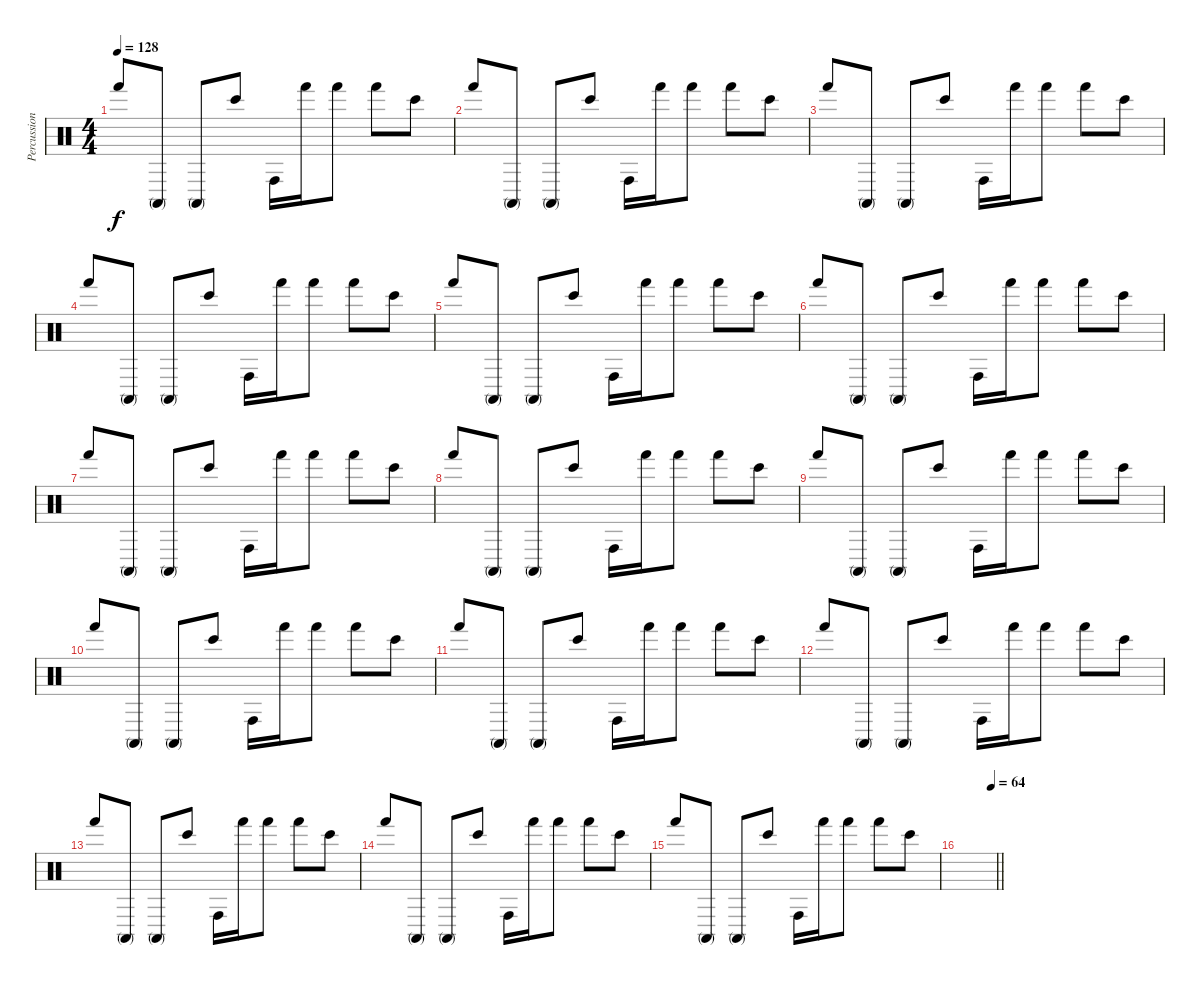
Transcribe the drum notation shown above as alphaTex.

\track ("Percussion" "Percussion") {instrument percussion}
\staff {score}
\articulation defaults
\ts (4 4)
\tempo 128
\clef neutral
\ks c "Hand (hit)".8{dy f} "Conga high (mute)".8 "Conga high (mute)".8 "Bongo High (hit)".8 "Conga high (hit)".16 "Hand (hit)".16 "Hand (hit)".8 "Hand (hit)".8 "Bongo High (hit)".8
|
"Hand (hit)".8 "Conga high (mute)".8 "Conga high (mute)".8 "Bongo High (hit)".8 "Conga high (hit)".16 "Hand (hit)".16 "Hand (hit)".8 "Hand (hit)".8 "Bongo High (hit)".8 |
"Hand (hit)".8 "Conga high (mute)".8 "Conga high (mute)".8 "Bongo High (hit)".8 "Conga high (hit)".16 "Hand (hit)".16 "Hand (hit)".8 "Hand (hit)".8 "Bongo High (hit)".8 |
"Hand (hit)".8 "Conga high (mute)".8 "Conga high (mute)".8 "Bongo High (hit)".8 "Conga high (hit)".16 "Hand (hit)".16 "Hand (hit)".8 "Hand (hit)".8 "Bongo High (hit)".8 |
"Hand (hit)".8 "Conga high (mute)".8 "Conga high (mute)".8 "Bongo High (hit)".8 "Conga high (hit)".16 "Hand (hit)".16 "Hand (hit)".8 "Hand (hit)".8 "Bongo High (hit)".8 |
"Hand (hit)".8 "Conga high (mute)".8 "Conga high (mute)".8 "Bongo High (hit)".8 "Conga high (hit)".16 "Hand (hit)".16 "Hand (hit)".8 "Hand (hit)".8 "Bongo High (hit)".8 |
"Hand (hit)".8 "Conga high (mute)".8 "Conga high (mute)".8 "Bongo High (hit)".8 "Conga high (hit)".16 "Hand (hit)".16 "Hand (hit)".8 "Hand (hit)".8 "Bongo High (hit)".8 |
"Hand (hit)".8 "Conga high (mute)".8 "Conga high (mute)".8 "Bongo High (hit)".8 "Conga high (hit)".16 "Hand (hit)".16 "Hand (hit)".8 "Hand (hit)".8 "Bongo High (hit)".8 |
"Hand (hit)".8 "Conga high (mute)".8 "Conga high (mute)".8 "Bongo High (hit)".8 "Conga high (hit)".16 "Hand (hit)".16 "Hand (hit)".8 "Hand (hit)".8 "Bongo High (hit)".8 |
"Hand (hit)".8 "Conga high (mute)".8 "Conga high (mute)".8 "Bongo High (hit)".8 "Conga high (hit)".16 "Hand (hit)".16 "Hand (hit)".8 "Hand (hit)".8 "Bongo High (hit)".8 |
"Hand (hit)".8 "Conga high (mute)".8 "Conga high (mute)".8 "Bongo High (hit)".8 "Conga high (hit)".16 "Hand (hit)".16 "Hand (hit)".8 "Hand (hit)".8 "Bongo High (hit)".8 |
"Hand (hit)".8 "Conga high (mute)".8 "Conga high (mute)".8 "Bongo High (hit)".8 "Conga high (hit)".16 "Hand (hit)".16 "Hand (hit)".8 "Hand (hit)".8 "Bongo High (hit)".8 |
"Hand (hit)".8 "Conga high (mute)".8 "Conga high (mute)".8 "Bongo High (hit)".8 "Conga high (hit)".16 "Hand (hit)".16 "Hand (hit)".8 "Hand (hit)".8 "Bongo High (hit)".8 |
"Hand (hit)".8 "Conga high (mute)".8 "Conga high (mute)".8 "Bongo High (hit)".8 "Conga high (hit)".16 "Hand (hit)".16 "Hand (hit)".8 "Hand (hit)".8 "Bongo High (hit)".8 |
"Hand (hit)".8 "Conga high (mute)".8 "Conga high (mute)".8 "Bongo High (hit)".8 "Conga high (hit)".16 "Hand (hit)".16 "Hand (hit)".8 "Hand (hit)".8 "Bongo High (hit)".8 |
\tempo (64 0.875)
\barLineRight lightlight
